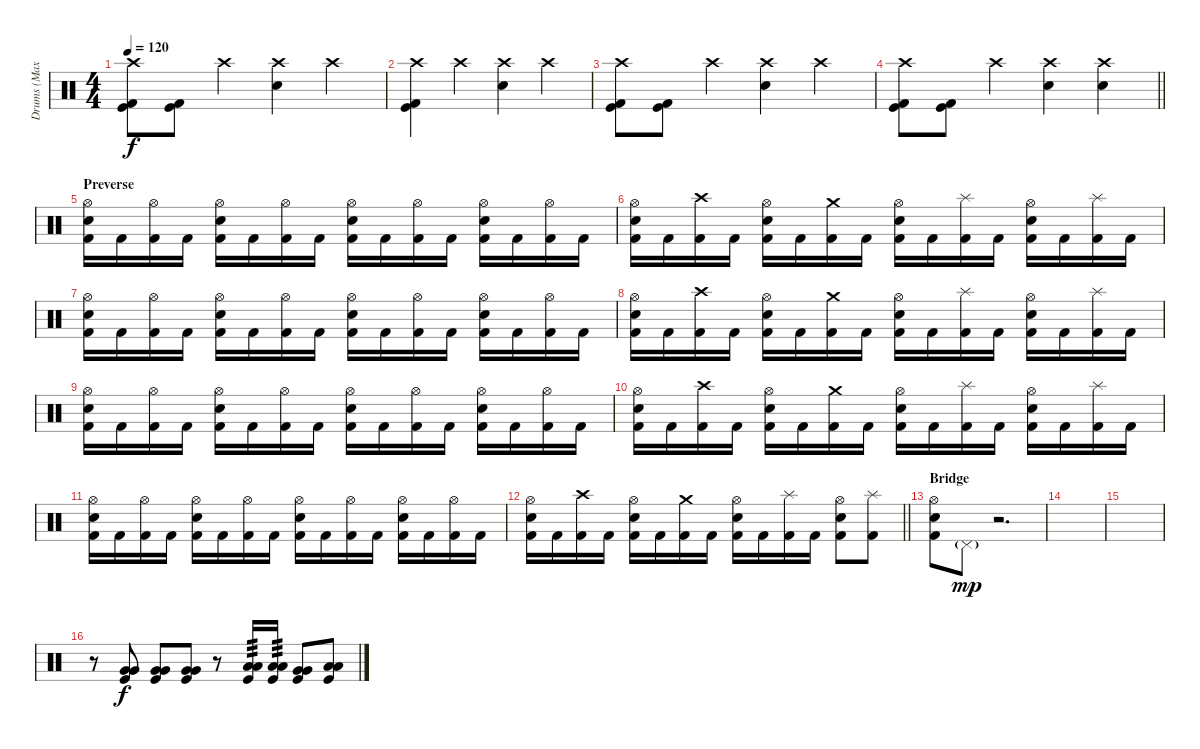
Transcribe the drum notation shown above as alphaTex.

\track ("Drums (Max Duhamel)" "Drums (Max") {instrument percussion}
\staff {score}
\articulation defaults
\ts (4 4)
\tempo 120
\clef neutral
\ks c
("Crash high (hit)" "Kick (hit)" "Kick (hit) 2").8{dy f} ("Kick (hit)" "Kick (hit) 2").8 "Crash high (hit)".4 ("Crash high (hit)" "Electric Snare (hit)").4 "Crash high (hit)".4 |
("Crash high (hit)" "Kick (hit)" "Kick (hit) 2").4 "Crash high (hit)".4 ("Crash high (hit)" "Electric Snare (hit)").4 "Crash high (hit)".4 |
("Crash high (hit)" "Kick (hit)" "Kick (hit) 2").8 ("Kick (hit)" "Kick (hit) 2").8 "Crash high (hit)".4 ("Crash high (hit)" "Electric Snare (hit)").4 "Crash high (hit)".4 |
\barLineRight lightlight
("Crash high (hit)" "Kick (hit)" "Kick (hit) 2").8 ("Kick (hit)" "Kick (hit) 2").8 "Crash high (hit)".4 ("Crash high (hit)" "Electric Snare (hit)").4 ("Crash high (hit)" "Electric Snare (hit)").4 |
\section ("" "Preverse")
("Hi-Hat (open)" "Electric Snare (hit)" "Kick (hit) 2").16 "Kick (hit) 2".16 ("Hi-Hat (open)" "Kick (hit) 2").16 "Kick (hit) 2".16 ("Hi-Hat (open)" "Electric Snare (hit)" "Kick (hit) 2").16 "Kick (hit) 2".16 ("Hi-Hat (open)" "Kick (hit) 2").16 "Kick (hit) 2".16 ("Hi-Hat (open)" "Electric Snare (hit)" "Kick (hit) 2").16 "Kick (hit) 2".16 ("Hi-Hat (open)" "Kick (hit) 2").16 "Kick (hit) 2".16 ("Hi-Hat (open)" "Electric Snare (hit)" "Kick (hit) 2").16 "Kick (hit) 2".16 ("Hi-Hat (open)" "Kick (hit) 2").16 "Kick (hit) 2".16 |
("Hi-Hat (open)" "Electric Snare (hit)" "Kick (hit) 2").16 "Kick (hit) 2".16 ("Crash high (hit)" "Kick (hit) 2").16 "Kick (hit) 2".16 ("Hi-Hat (open)" "Electric Snare (hit)" "Kick (hit) 2").16 "Kick (hit) 2".16 ("Crash medium (hit)" "Kick (hit) 2").16 "Kick (hit) 2".16 ("Hi-Hat (open)" "Electric Snare (hit)" "Kick (hit) 2").16 "Kick (hit) 2".16 ("Splash (hit)" "Kick (hit) 2").16 "Kick (hit) 2".16 ("Hi-Hat (open)" "Electric Snare (hit)" "Kick (hit) 2").16 "Kick (hit) 2".16 ("Splash (hit)" "Kick (hit) 2").16 "Kick (hit) 2".16 |
("Hi-Hat (open)" "Electric Snare (hit)" "Kick (hit) 2").16 "Kick (hit) 2".16 ("Hi-Hat (open)" "Kick (hit) 2").16 "Kick (hit) 2".16 ("Hi-Hat (open)" "Electric Snare (hit)" "Kick (hit) 2").16 "Kick (hit) 2".16 ("Hi-Hat (open)" "Kick (hit) 2").16 "Kick (hit) 2".16 ("Hi-Hat (open)" "Electric Snare (hit)" "Kick (hit) 2").16 "Kick (hit) 2".16 ("Hi-Hat (open)" "Kick (hit) 2").16 "Kick (hit) 2".16 ("Hi-Hat (open)" "Electric Snare (hit)" "Kick (hit) 2").16 "Kick (hit) 2".16 ("Hi-Hat (open)" "Kick (hit) 2").16 "Kick (hit) 2".16 |
("Hi-Hat (open)" "Electric Snare (hit)" "Kick (hit) 2").16 "Kick (hit) 2".16 ("Crash high (hit)" "Kick (hit) 2").16 "Kick (hit) 2".16 ("Hi-Hat (open)" "Electric Snare (hit)" "Kick (hit) 2").16 "Kick (hit) 2".16 ("Crash medium (hit)" "Kick (hit) 2").16 "Kick (hit) 2".16 ("Hi-Hat (open)" "Electric Snare (hit)" "Kick (hit) 2").16 "Kick (hit) 2".16 ("Splash (hit)" "Kick (hit) 2").16 "Kick (hit) 2".16 ("Hi-Hat (open)" "Electric Snare (hit)" "Kick (hit) 2").16 "Kick (hit) 2".16 ("Splash (hit)" "Kick (hit) 2").16 "Kick (hit) 2".16 |
("Hi-Hat (open)" "Electric Snare (hit)" "Kick (hit) 2").16 "Kick (hit) 2".16 ("Hi-Hat (open)" "Kick (hit) 2").16 "Kick (hit) 2".16 ("Hi-Hat (open)" "Electric Snare (hit)" "Kick (hit) 2").16 "Kick (hit) 2".16 ("Hi-Hat (open)" "Kick (hit) 2").16 "Kick (hit) 2".16 ("Hi-Hat (open)" "Electric Snare (hit)" "Kick (hit) 2").16 "Kick (hit) 2".16 ("Hi-Hat (open)" "Kick (hit) 2").16 "Kick (hit) 2".16 ("Hi-Hat (open)" "Electric Snare (hit)" "Kick (hit) 2").16 "Kick (hit) 2".16 ("Hi-Hat (open)" "Kick (hit) 2").16 "Kick (hit) 2".16 |
("Hi-Hat (open)" "Electric Snare (hit)" "Kick (hit) 2").16 "Kick (hit) 2".16 ("Crash high (hit)" "Kick (hit) 2").16 "Kick (hit) 2".16 ("Hi-Hat (open)" "Electric Snare (hit)" "Kick (hit) 2").16 "Kick (hit) 2".16 ("Crash medium (hit)" "Kick (hit) 2").16 "Kick (hit) 2".16 ("Hi-Hat (open)" "Electric Snare (hit)" "Kick (hit) 2").16 "Kick (hit) 2".16 ("Splash (hit)" "Kick (hit) 2").16 "Kick (hit) 2".16 ("Hi-Hat (open)" "Electric Snare (hit)" "Kick (hit) 2").16 "Kick (hit) 2".16 ("Splash (hit)" "Kick (hit) 2").16 "Kick (hit) 2".16 |
("Hi-Hat (open)" "Electric Snare (hit)" "Kick (hit) 2").16 "Kick (hit) 2".16 ("Hi-Hat (open)" "Kick (hit) 2").16 "Kick (hit) 2".16 ("Hi-Hat (open)" "Electric Snare (hit)" "Kick (hit) 2").16 "Kick (hit) 2".16 ("Hi-Hat (open)" "Kick (hit) 2").16 "Kick (hit) 2".16 ("Hi-Hat (open)" "Electric Snare (hit)" "Kick (hit) 2").16 "Kick (hit) 2".16 ("Hi-Hat (open)" "Kick (hit) 2").16 "Kick (hit) 2".16 ("Hi-Hat (open)" "Electric Snare (hit)" "Kick (hit) 2").16 "Kick (hit) 2".16 ("Hi-Hat (open)" "Kick (hit) 2").16 "Kick (hit) 2".16 |
\barLineRight lightlight
("Hi-Hat (open)" "Electric Snare (hit)" "Kick (hit) 2").16 "Kick (hit) 2".16 ("Crash high (hit)" "Kick (hit) 2").16 "Kick (hit) 2".16 ("Hi-Hat (open)" "Electric Snare (hit)" "Kick (hit) 2").16 "Kick (hit) 2".16 ("Crash medium (hit)" "Kick (hit) 2").16 "Kick (hit) 2".16 ("Hi-Hat (open)" "Electric Snare (hit)" "Kick (hit) 2").16 "Kick (hit) 2".16 ("Splash (hit)" "Kick (hit) 2").16 "Kick (hit) 2".16 ("Hi-Hat (open)" "Electric Snare (hit)" "Kick (hit) 2").8 ("Splash (hit)" "Kick (hit) 2").8 |
\section ("" "Bridge")
("Hi-Hat (open)" "Electric Snare (hit)" "Kick (hit) 2").8 "Pedal Hi-Hat (hit)"{g}.8{dy mp} r.2{d} |
|
|
r.8 ("Very Low Tom (hit)" "Very Low Tom (hit)" "Kick (hit)").8{dy f} ("Very Low Tom (hit)" "Very Low Tom (hit)" "Kick (hit)").8 ("Very Low Tom (hit)" "Very Low Tom (hit)" "Kick (hit)").8 r.8 ("Low Tom (hit)" "Low Tom (hit)" "Kick (hit)").16{tp 3} ("Low Tom (hit)" "Low Tom (hit)" "Kick (hit)").16{tp 3} ("Very Low Tom (hit)" "Very Low Tom (hit)" "Kick (hit)").8 ("Low Tom (hit)" "Low Tom (hit)" "Kick (hit)").8
